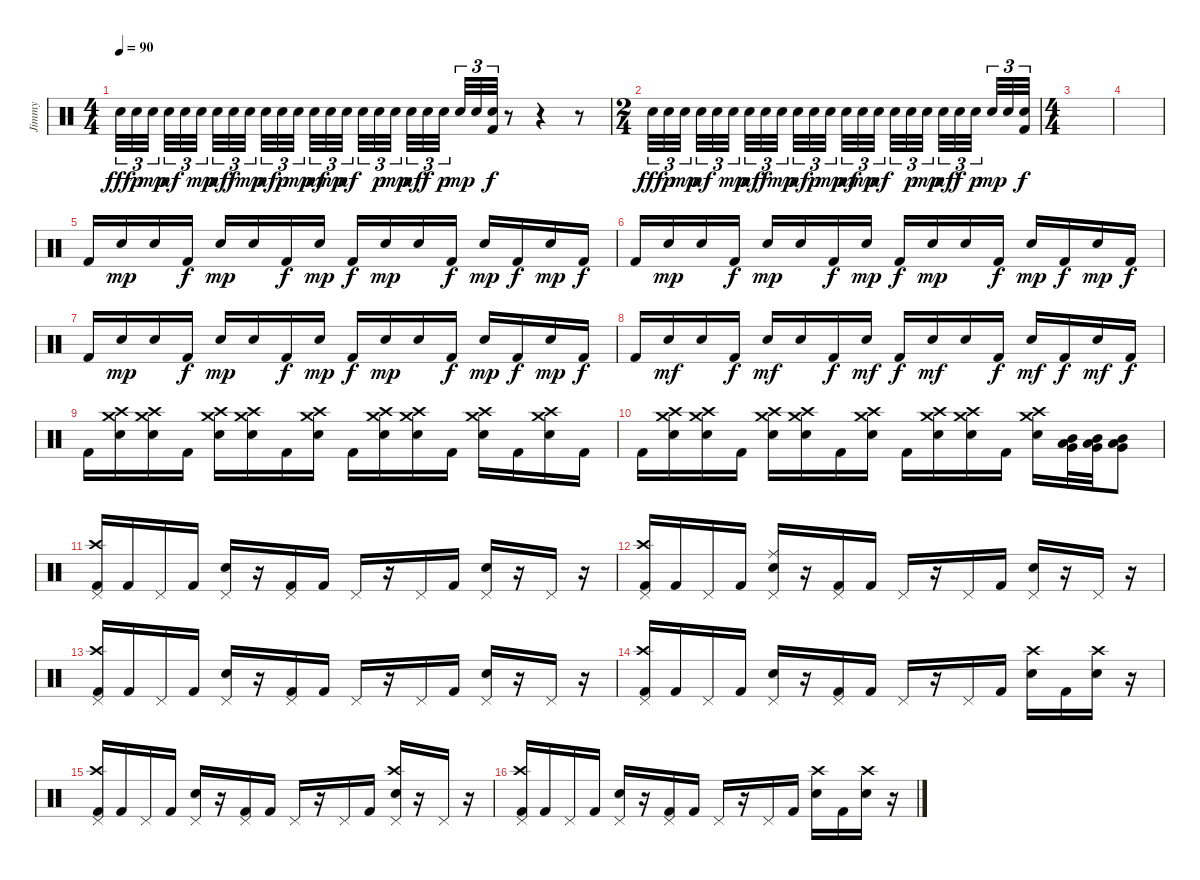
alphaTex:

\track ("Jimmy" "Jimmy") {instrument percussion}
\staff {score}
\articulation defaults
\ts (4 4)
\tempo 90
\clef neutral
\ks c "Electric Snare (hit)".32{tu (3 2) dy fff} "Electric Snare (hit)".32{tu (3 2) dy p} "Electric Snare (hit)".32{tu (3 2) dy mp} "Electric Snare (hit)".32{tu (3 2) dy mf} "Electric Snare (hit)".32{tu (3 2)} "Electric Snare (hit)".32{tu (3 2) dy mp} "Electric Snare (hit)".32{tu (3 2) dy mf} "Electric Snare (hit)".32{tu (3 2) dy f} "Electric Snare (hit)".32{tu (3 2) dy mp} "Electric Snare (hit)".32{tu (3 2) dy mf} "Electric Snare (hit)".32{tu (3 2) dy p} "Electric Snare (hit)".32{tu (3 2) dy mp} "Electric Snare (hit)".32{tu (3 2) dy mf} "Electric Snare (hit)".32{tu (3 2) dy mp} "Electric Snare (hit)".32{tu (3 2) dy mf} "Electric Snare (hit)".32{tu (3 2)} "Electric Snare (hit)".32{tu (3 2) dy p} "Electric Snare (hit)".32{tu (3 2) dy mp} "Electric Snare (hit)".32{tu (3 2) dy mf} "Electric Snare (hit)".32{tu (3 2) dy f} "Electric Snare (hit)".32{tu (3 2) dy p} "Electric Snare (hit)".32{tu (3 2) dy mp} "Electric Snare (hit)".32{tu (3 2)}
("Electric Snare (hit)" "Kick (hit) 2").32{tu (3 2) dy f} r.8 r.4 r.8 |
\ts (2 4)
"Electric Snare (hit)".32{tu (3 2) dy fff} "Electric Snare (hit)".32{tu (3 2) dy p} "Electric Snare (hit)".32{tu (3 2) dy mp} "Electric Snare (hit)".32{tu (3 2) dy mf} "Electric Snare (hit)".32{tu (3 2)} "Electric Snare (hit)".32{tu (3 2) dy mp} "Electric Snare (hit)".32{tu (3 2) dy mf} "Electric Snare (hit)".32{tu (3 2) dy f} "Electric Snare (hit)".32{tu (3 2) dy mp} "Electric Snare (hit)".32{tu (3 2) dy mf} "Electric Snare (hit)".32{tu (3 2) dy p} "Electric Snare (hit)".32{tu (3 2) dy mp} "Electric Snare (hit)".32{tu (3 2) dy mf} "Electric Snare (hit)".32{tu (3 2) dy mp} "Electric Snare (hit)".32{tu (3 2) dy mf} "Electric Snare (hit)".32{tu (3 2)} "Electric Snare (hit)".32{tu (3 2) dy p} "Electric Snare (hit)".32{tu (3 2) dy mp} "Electric Snare (hit)".32{tu (3 2) dy mf} "Electric Snare (hit)".32{tu (3 2) dy f} "Electric Snare (hit)".32{tu (3 2) dy p} "Electric Snare (hit)".32{tu (3 2) dy mp} "Electric Snare (hit)".32{tu (3 2)} ("Electric Snare (hit)" "Kick (hit) 2").32{tu (3 2) dy f} |
\ts (4 4)
|
|
"Kick (hit) 2".16 "Electric Snare (hit)".16{dy mp} "Electric Snare (hit)".16 "Kick (hit) 2".16{dy f} "Electric Snare (hit)".16{dy mp} "Electric Snare (hit)".16 "Kick (hit) 2".16{dy f} "Electric Snare (hit)".16{dy mp} "Kick (hit) 2".16{dy f} "Electric Snare (hit)".16{dy mp} "Electric Snare (hit)".16 "Kick (hit) 2".16{dy f} "Electric Snare (hit)".16{dy mp} "Kick (hit) 2".16{dy f} "Electric Snare (hit)".16{dy mp} "Kick (hit) 2".16{dy f} |
"Kick (hit) 2".16 "Electric Snare (hit)".16{dy mp} "Electric Snare (hit)".16 "Kick (hit) 2".16{dy f} "Electric Snare (hit)".16{dy mp} "Electric Snare (hit)".16 "Kick (hit) 2".16{dy f} "Electric Snare (hit)".16{dy mp} "Kick (hit) 2".16{dy f} "Electric Snare (hit)".16{dy mp} "Electric Snare (hit)".16 "Kick (hit) 2".16{dy f} "Electric Snare (hit)".16{dy mp} "Kick (hit) 2".16{dy f} "Electric Snare (hit)".16{dy mp} "Kick (hit) 2".16{dy f} |
"Kick (hit) 2".16 "Electric Snare (hit)".16{dy mp} "Electric Snare (hit)".16 "Kick (hit) 2".16{dy f} "Electric Snare (hit)".16{dy mp} "Electric Snare (hit)".16 "Kick (hit) 2".16{dy f} "Electric Snare (hit)".16{dy mp} "Kick (hit) 2".16{dy f} "Electric Snare (hit)".16{dy mp} "Electric Snare (hit)".16 "Kick (hit) 2".16{dy f} "Electric Snare (hit)".16{dy mp} "Kick (hit) 2".16{dy f} "Electric Snare (hit)".16{dy mp} "Kick (hit) 2".16{dy f} |
"Kick (hit) 2".16 "Electric Snare (hit)".16{dy mf} "Electric Snare (hit)".16 "Kick (hit) 2".16{dy f} "Electric Snare (hit)".16{dy mf} "Electric Snare (hit)".16 "Kick (hit) 2".16{dy f} "Electric Snare (hit)".16{dy mf} "Kick (hit) 2".16{dy f} "Electric Snare (hit)".16{dy mf} "Electric Snare (hit)".16 "Kick (hit) 2".16{dy f} "Electric Snare (hit)".16{dy mf} "Kick (hit) 2".16{dy f} "Electric Snare (hit)".16{dy mf} "Kick (hit) 2".16{dy f} |
"Kick (hit) 2".16 ("Electric Snare (hit)" "Crash high (hit)" "Crash medium (hit)").16 ("Electric Snare (hit)" "Crash high (hit)" "Crash medium (hit)").16 "Kick (hit) 2".16 ("Electric Snare (hit)" "Crash high (hit)" "Crash medium (hit)").16 ("Electric Snare (hit)" "Crash high (hit)" "Crash medium (hit)").16 "Kick (hit) 2".16 ("Electric Snare (hit)" "Crash high (hit)" "Crash medium (hit)").16 "Kick (hit) 2".16 ("Electric Snare (hit)" "Crash high (hit)" "Crash medium (hit)").16 ("Electric Snare (hit)" "Crash high (hit)" "Crash medium (hit)").16 "Kick (hit) 2".16 ("Electric Snare (hit)" "Crash high (hit)" "Crash medium (hit)").16 "Kick (hit) 2".16 ("Electric Snare (hit)" "Crash high (hit)" "Crash medium (hit)").16 "Kick (hit) 2".16 |
"Kick (hit) 2".16 ("Electric Snare (hit)" "Crash high (hit)" "Crash medium (hit)").16 ("Electric Snare (hit)" "Crash high (hit)" "Crash medium (hit)").16 "Kick (hit) 2".16 ("Electric Snare (hit)" "Crash high (hit)" "Crash medium (hit)").16 ("Electric Snare (hit)" "Crash high (hit)" "Crash medium (hit)").16 "Kick (hit) 2".16 ("Electric Snare (hit)" "Crash high (hit)" "Crash medium (hit)").16 "Kick (hit) 2".16 ("Electric Snare (hit)" "Crash high (hit)" "Crash medium (hit)").16 ("Electric Snare (hit)" "Crash high (hit)" "Crash medium (hit)").16 "Kick (hit) 2".16 ("Electric Snare (hit)" "Crash high (hit)" "Crash medium (hit)").16 ("Very Low Tom (hit)" "Low Tom (hit)" "Mid Tom (hit)").32 ("Very Low Tom (hit)" "Low Tom (hit)" "Mid Tom (hit)").32 ("Very Low Tom (hit)" "Low Tom (hit)" "Mid Tom (hit)").8 |
("Kick (hit) 2" "Pedal Hi-Hat (hit)" "Crash high (hit)").16 "Kick (hit) 2".16 "Pedal Hi-Hat (hit)".16 "Kick (hit) 2".16 ("Electric Snare (hit)" "Pedal Hi-Hat (hit)").16 r.16 ("Kick (hit) 2" "Pedal Hi-Hat (hit)").16 "Kick (hit) 2".16 "Pedal Hi-Hat (hit)".16 r.16 "Pedal Hi-Hat (hit)".16 "Kick (hit) 2".16 ("Electric Snare (hit)" "Pedal Hi-Hat (hit)").16 r.16 "Pedal Hi-Hat (hit)".16 r.16 |
("Kick (hit) 2" "Pedal Hi-Hat (hit)" "Crash high (hit)").16 "Kick (hit) 2".16 "Pedal Hi-Hat (hit)".16 "Kick (hit) 2".16 ("Electric Snare (hit)" "Pedal Hi-Hat (hit)" "Ride (middle)").16 r.16 ("Kick (hit) 2" "Pedal Hi-Hat (hit)").16 "Kick (hit) 2".16 "Pedal Hi-Hat (hit)".16 r.16 "Pedal Hi-Hat (hit)".16 "Kick (hit) 2".16 ("Electric Snare (hit)" "Pedal Hi-Hat (hit)").16 r.16 "Pedal Hi-Hat (hit)".16 r.16 |
("Kick (hit) 2" "Pedal Hi-Hat (hit)" "Crash high (hit)").16 "Kick (hit) 2".16 "Pedal Hi-Hat (hit)".16 "Kick (hit) 2".16 ("Electric Snare (hit)" "Pedal Hi-Hat (hit)").16 r.16 ("Kick (hit) 2" "Pedal Hi-Hat (hit)").16 "Kick (hit) 2".16 "Pedal Hi-Hat (hit)".16 r.16 "Pedal Hi-Hat (hit)".16 "Kick (hit) 2".16 ("Electric Snare (hit)" "Pedal Hi-Hat (hit)").16 r.16 "Pedal Hi-Hat (hit)".16 r.16 |
("Kick (hit) 2" "Pedal Hi-Hat (hit)" "Crash high (hit)").16 "Kick (hit) 2".16 "Pedal Hi-Hat (hit)".16 "Kick (hit) 2".16 ("Electric Snare (hit)" "Pedal Hi-Hat (hit)").16 r.16 ("Kick (hit) 2" "Pedal Hi-Hat (hit)").16 "Kick (hit) 2".16 "Pedal Hi-Hat (hit)".16 r.16 "Pedal Hi-Hat (hit)".16 "Kick (hit) 2".16 ("Electric Snare (hit)" "Crash high (hit)").16 "Kick (hit) 2".16 ("Electric Snare (hit)" "Crash high (hit)").16 r.16 |
("Kick (hit) 2" "Pedal Hi-Hat (hit)" "Crash high (hit)").16 "Kick (hit) 2".16 "Pedal Hi-Hat (hit)".16 "Kick (hit) 2".16 ("Electric Snare (hit)" "Pedal Hi-Hat (hit)").16 r.16 ("Kick (hit) 2" "Pedal Hi-Hat (hit)").16 "Kick (hit) 2".16 "Pedal Hi-Hat (hit)".16 r.16 "Pedal Hi-Hat (hit)".16 "Kick (hit) 2".16 ("Electric Snare (hit)" "Pedal Hi-Hat (hit)" "Crash high (hit)").16 r.16 "Pedal Hi-Hat (hit)".16 r.16 |
("Kick (hit) 2" "Pedal Hi-Hat (hit)" "Crash high (hit)").16 "Kick (hit) 2".16 "Pedal Hi-Hat (hit)".16 "Kick (hit) 2".16 ("Electric Snare (hit)" "Pedal Hi-Hat (hit)").16 r.16 ("Kick (hit) 2" "Pedal Hi-Hat (hit)").16 "Kick (hit) 2".16 "Pedal Hi-Hat (hit)".16 r.16 "Pedal Hi-Hat (hit)".16 "Kick (hit) 2".16 ("Electric Snare (hit)" "Crash high (hit)").16 "Kick (hit) 2".16 ("Electric Snare (hit)" "Crash high (hit)").16 r.16
